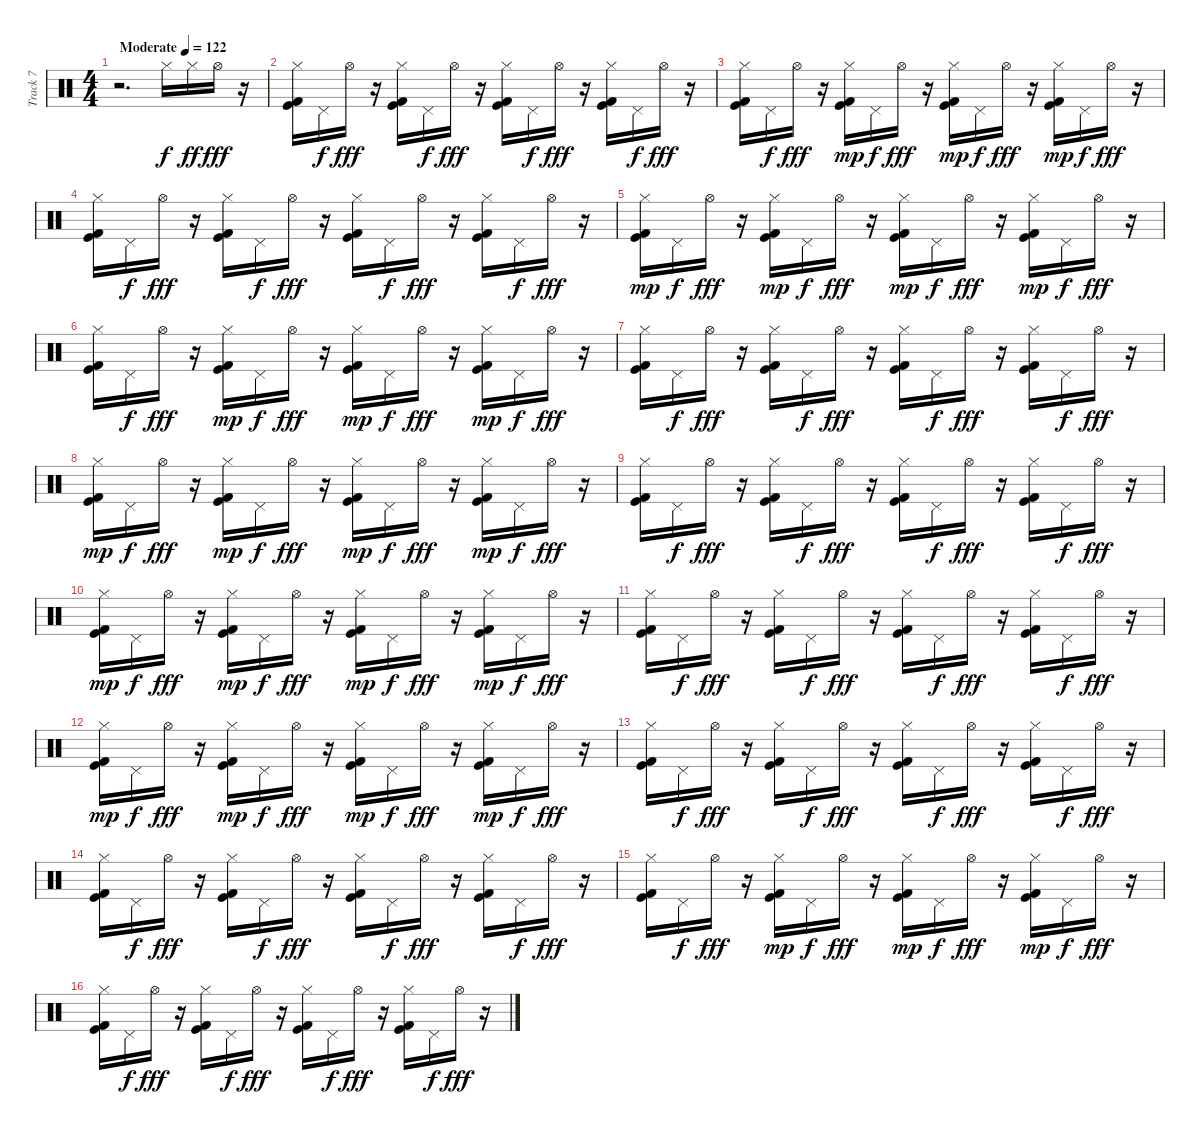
\track ("Track 7" "Track 7") {instrument percussion}
\staff {score}
\articulation defaults
\ts (4 4)
\tempo (122 "Moderate")
\clef neutral
\ks c
r.2{d dy f} "Hi-Hat (closed)".16 "Hi-Hat (closed)".16{dy ff} "Hi-Hat (open)".16{dy fff} r.16 |
("Hi-Hat (closed)" "Kick (hit) 2" "Kick (hit)").16 "Pedal Hi-Hat (hit)".16{dy f} "Hi-Hat (open)".16{dy fff} r.16 ("Hi-Hat (closed)" "Kick (hit)" "Kick (hit) 2").16 "Pedal Hi-Hat (hit)".16{dy f} "Hi-Hat (open)".16{dy fff} r.16 ("Hi-Hat (closed)" "Kick (hit)" "Kick (hit) 2").16 "Pedal Hi-Hat (hit)".16{dy f} "Hi-Hat (open)".16{dy fff} r.16 ("Hi-Hat (closed)" "Kick (hit)" "Kick (hit) 2").16 "Pedal Hi-Hat (hit)".16{dy f} "Hi-Hat (open)".16{dy fff} r.16 |
("Kick (hit) 2" "Hi-Hat (closed)" "Kick (hit)").16 "Pedal Hi-Hat (hit)".16{dy f} "Hi-Hat (open)".16{dy fff} r.16 ("Kick (hit) 2" "Kick (hit)" "Hi-Hat (closed)").16{dy mp} "Pedal Hi-Hat (hit)".16{dy f} "Hi-Hat (open)".16{dy fff} r.16 ("Kick (hit) 2" "Kick (hit)" "Hi-Hat (closed)").16{dy mp} "Pedal Hi-Hat (hit)".16{dy f} "Hi-Hat (open)".16{dy fff} r.16 ("Kick (hit) 2" "Kick (hit)" "Hi-Hat (closed)").16{dy mp} "Pedal Hi-Hat (hit)".16{dy f} "Hi-Hat (open)".16{dy fff} r.16 |
("Hi-Hat (closed)" "Kick (hit) 2" "Kick (hit)").16 "Pedal Hi-Hat (hit)".16{dy f} "Hi-Hat (open)".16{dy fff} r.16 ("Hi-Hat (closed)" "Kick (hit)" "Kick (hit) 2").16 "Pedal Hi-Hat (hit)".16{dy f} "Hi-Hat (open)".16{dy fff} r.16 ("Hi-Hat (closed)" "Kick (hit)" "Kick (hit) 2").16 "Pedal Hi-Hat (hit)".16{dy f} "Hi-Hat (open)".16{dy fff} r.16 ("Hi-Hat (closed)" "Kick (hit)" "Kick (hit) 2").16 "Pedal Hi-Hat (hit)".16{dy f} "Hi-Hat (open)".16{dy fff} r.16 |
("Kick (hit)" "Kick (hit) 2" "Hi-Hat (closed)").16{dy mp} "Pedal Hi-Hat (hit)".16{dy f} "Hi-Hat (open)".16{dy fff} r.16 ("Kick (hit) 2" "Kick (hit)" "Hi-Hat (closed)").16{dy mp} "Pedal Hi-Hat (hit)".16{dy f} "Hi-Hat (open)".16{dy fff} r.16 ("Kick (hit) 2" "Kick (hit)" "Hi-Hat (closed)").16{dy mp} "Pedal Hi-Hat (hit)".16{dy f} "Hi-Hat (open)".16{dy fff} r.16 ("Kick (hit) 2" "Kick (hit)" "Hi-Hat (closed)").16{dy mp} "Pedal Hi-Hat (hit)".16{dy f} "Hi-Hat (open)".16{dy fff} r.16 |
("Kick (hit) 2" "Hi-Hat (closed)" "Kick (hit)").16 "Pedal Hi-Hat (hit)".16{dy f} "Hi-Hat (open)".16{dy fff} r.16 ("Kick (hit) 2" "Kick (hit)" "Hi-Hat (closed)").16{dy mp} "Pedal Hi-Hat (hit)".16{dy f} "Hi-Hat (open)".16{dy fff} r.16 ("Kick (hit) 2" "Kick (hit)" "Hi-Hat (closed)").16{dy mp} "Pedal Hi-Hat (hit)".16{dy f} "Hi-Hat (open)".16{dy fff} r.16 ("Kick (hit) 2" "Kick (hit)" "Hi-Hat (closed)").16{dy mp} "Pedal Hi-Hat (hit)".16{dy f} "Hi-Hat (open)".16{dy fff} r.16 |
("Kick (hit)" "Hi-Hat (closed)" "Kick (hit) 2").16 "Pedal Hi-Hat (hit)".16{dy f} "Hi-Hat (open)".16{dy fff} r.16 ("Hi-Hat (closed)" "Kick (hit)" "Kick (hit) 2").16 "Pedal Hi-Hat (hit)".16{dy f} "Hi-Hat (open)".16{dy fff} r.16 ("Hi-Hat (closed)" "Kick (hit)" "Kick (hit) 2").16 "Pedal Hi-Hat (hit)".16{dy f} "Hi-Hat (open)".16{dy fff} r.16 ("Hi-Hat (closed)" "Kick (hit)" "Kick (hit) 2").16 "Pedal Hi-Hat (hit)".16{dy f} "Hi-Hat (open)".16{dy fff} r.16 |
("Kick (hit)" "Kick (hit) 2" "Hi-Hat (closed)").16{dy mp} "Pedal Hi-Hat (hit)".16{dy f} "Hi-Hat (open)".16{dy fff} r.16 ("Kick (hit) 2" "Kick (hit)" "Hi-Hat (closed)").16{dy mp} "Pedal Hi-Hat (hit)".16{dy f} "Hi-Hat (open)".16{dy fff} r.16 ("Kick (hit) 2" "Kick (hit)" "Hi-Hat (closed)").16{dy mp} "Pedal Hi-Hat (hit)".16{dy f} "Hi-Hat (open)".16{dy fff} r.16 ("Kick (hit) 2" "Kick (hit)" "Hi-Hat (closed)").16{dy mp} "Pedal Hi-Hat (hit)".16{dy f} "Hi-Hat (open)".16{dy fff} r.16 |
("Hi-Hat (closed)" "Kick (hit) 2" "Kick (hit)").16 "Pedal Hi-Hat (hit)".16{dy f} "Hi-Hat (open)".16{dy fff} r.16 ("Hi-Hat (closed)" "Kick (hit)" "Kick (hit) 2").16 "Pedal Hi-Hat (hit)".16{dy f} "Hi-Hat (open)".16{dy fff} r.16 ("Hi-Hat (closed)" "Kick (hit)" "Kick (hit) 2").16 "Pedal Hi-Hat (hit)".16{dy f} "Hi-Hat (open)".16{dy fff} r.16 ("Hi-Hat (closed)" "Kick (hit)" "Kick (hit) 2").16 "Pedal Hi-Hat (hit)".16{dy f} "Hi-Hat (open)".16{dy fff} r.16 |
("Kick (hit)" "Kick (hit) 2" "Hi-Hat (closed)").16{dy mp} "Pedal Hi-Hat (hit)".16{dy f} "Hi-Hat (open)".16{dy fff} r.16 ("Kick (hit) 2" "Kick (hit)" "Hi-Hat (closed)").16{dy mp} "Pedal Hi-Hat (hit)".16{dy f} "Hi-Hat (open)".16{dy fff} r.16 ("Kick (hit) 2" "Kick (hit)" "Hi-Hat (closed)").16{dy mp} "Pedal Hi-Hat (hit)".16{dy f} "Hi-Hat (open)".16{dy fff} r.16 ("Kick (hit) 2" "Kick (hit)" "Hi-Hat (closed)").16{dy mp} "Pedal Hi-Hat (hit)".16{dy f} "Hi-Hat (open)".16{dy fff} r.16 |
("Kick (hit)" "Hi-Hat (closed)" "Kick (hit) 2").16 "Pedal Hi-Hat (hit)".16{dy f} "Hi-Hat (open)".16{dy fff} r.16 ("Hi-Hat (closed)" "Kick (hit)" "Kick (hit) 2").16 "Pedal Hi-Hat (hit)".16{dy f} "Hi-Hat (open)".16{dy fff} r.16 ("Hi-Hat (closed)" "Kick (hit)" "Kick (hit) 2").16 "Pedal Hi-Hat (hit)".16{dy f} "Hi-Hat (open)".16{dy fff} r.16 ("Hi-Hat (closed)" "Kick (hit)" "Kick (hit) 2").16 "Pedal Hi-Hat (hit)".16{dy f} "Hi-Hat (open)".16{dy fff} r.16 |
("Kick (hit)" "Kick (hit) 2" "Hi-Hat (closed)").16{dy mp} "Pedal Hi-Hat (hit)".16{dy f} "Hi-Hat (open)".16{dy fff} r.16 ("Kick (hit) 2" "Kick (hit)" "Hi-Hat (closed)").16{dy mp} "Pedal Hi-Hat (hit)".16{dy f} "Hi-Hat (open)".16{dy fff} r.16 ("Kick (hit) 2" "Kick (hit)" "Hi-Hat (closed)").16{dy mp} "Pedal Hi-Hat (hit)".16{dy f} "Hi-Hat (open)".16{dy fff} r.16 ("Kick (hit) 2" "Kick (hit)" "Hi-Hat (closed)").16{dy mp} "Pedal Hi-Hat (hit)".16{dy f} "Hi-Hat (open)".16{dy fff} r.16 |
("Hi-Hat (closed)" "Kick (hit) 2" "Kick (hit)").16 "Pedal Hi-Hat (hit)".16{dy f} "Hi-Hat (open)".16{dy fff} r.16 ("Hi-Hat (closed)" "Kick (hit)" "Kick (hit) 2").16 "Pedal Hi-Hat (hit)".16{dy f} "Hi-Hat (open)".16{dy fff} r.16 ("Hi-Hat (closed)" "Kick (hit)" "Kick (hit) 2").16 "Pedal Hi-Hat (hit)".16{dy f} "Hi-Hat (open)".16{dy fff} r.16 ("Hi-Hat (closed)" "Kick (hit)" "Kick (hit) 2").16 "Pedal Hi-Hat (hit)".16{dy f} "Hi-Hat (open)".16{dy fff} r.16 |
("Kick (hit)" "Hi-Hat (closed)" "Kick (hit) 2").16 "Pedal Hi-Hat (hit)".16{dy f} "Hi-Hat (open)".16{dy fff} r.16 ("Hi-Hat (closed)" "Kick (hit)" "Kick (hit) 2").16 "Pedal Hi-Hat (hit)".16{dy f} "Hi-Hat (open)".16{dy fff} r.16 ("Hi-Hat (closed)" "Kick (hit)" "Kick (hit) 2").16 "Pedal Hi-Hat (hit)".16{dy f} "Hi-Hat (open)".16{dy fff} r.16 ("Hi-Hat (closed)" "Kick (hit)" "Kick (hit) 2").16 "Pedal Hi-Hat (hit)".16{dy f} "Hi-Hat (open)".16{dy fff} r.16 |
("Kick (hit) 2" "Hi-Hat (closed)" "Kick (hit)").16 "Pedal Hi-Hat (hit)".16{dy f} "Hi-Hat (open)".16{dy fff} r.16 ("Kick (hit) 2" "Kick (hit)" "Hi-Hat (closed)").16{dy mp} "Pedal Hi-Hat (hit)".16{dy f} "Hi-Hat (open)".16{dy fff} r.16 ("Kick (hit) 2" "Kick (hit)" "Hi-Hat (closed)").16{dy mp} "Pedal Hi-Hat (hit)".16{dy f} "Hi-Hat (open)".16{dy fff} r.16 ("Kick (hit) 2" "Kick (hit)" "Hi-Hat (closed)").16{dy mp} "Pedal Hi-Hat (hit)".16{dy f} "Hi-Hat (open)".16{dy fff} r.16 |
("Hi-Hat (closed)" "Kick (hit) 2" "Kick (hit)").16 "Pedal Hi-Hat (hit)".16{dy f} "Hi-Hat (open)".16{dy fff} r.16 ("Hi-Hat (closed)" "Kick (hit)" "Kick (hit) 2").16 "Pedal Hi-Hat (hit)".16{dy f} "Hi-Hat (open)".16{dy fff} r.16 ("Hi-Hat (closed)" "Kick (hit)" "Kick (hit) 2").16 "Pedal Hi-Hat (hit)".16{dy f} "Hi-Hat (open)".16{dy fff} r.16 ("Hi-Hat (closed)" "Kick (hit)" "Kick (hit) 2").16 "Pedal Hi-Hat (hit)".16{dy f} "Hi-Hat (open)".16{dy fff} r.16
